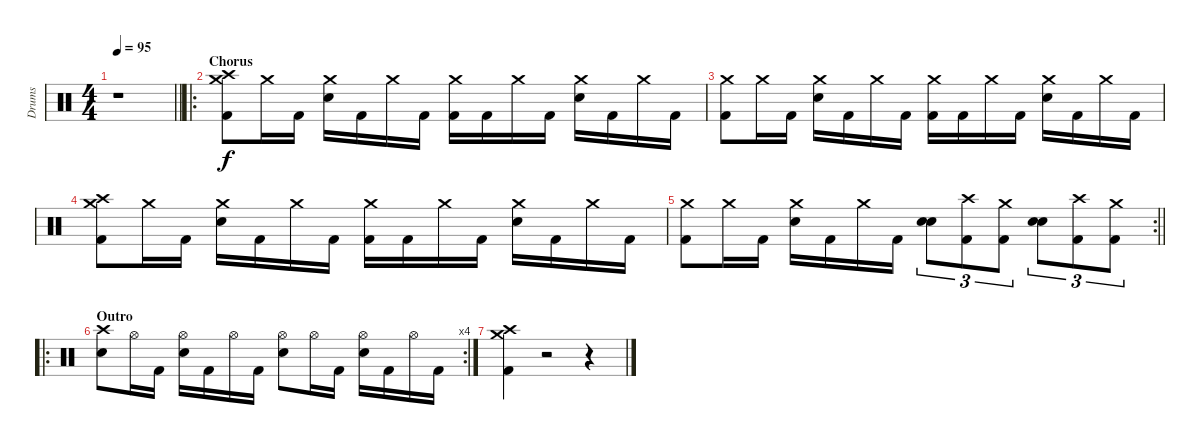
\track ("Drums" "Drums") {instrument percussion}
\staff {score}
\articulation defaults
\ts (4 4)
\tempo 95
\clef neutral
\barLineRight lightlight
\ks c
r.1{dy f} |
\ro
\section ("" "Chorus")
("Crash high (hit)" "Crash medium (hit)" "Kick (hit) 2").8 "Crash medium (hit)".16 "Kick (hit) 2".16 ("Crash medium (hit)" "Electric Snare (hit)").16 "Kick (hit) 2".16 "Crash medium (hit)".16 "Kick (hit) 2".16 ("Crash medium (hit)" "Kick (hit) 2").16 "Kick (hit) 2".16 "Crash medium (hit)".16 "Kick (hit) 2".16 ("Electric Snare (hit)" "Crash medium (hit)").16 "Kick (hit) 2".16 "Crash medium (hit)".16 "Kick (hit) 2".16 |
("Crash medium (hit)" "Kick (hit) 2").8 "Crash medium (hit)".16 "Kick (hit) 2".16 ("Crash medium (hit)" "Electric Snare (hit)").16 "Kick (hit) 2".16 "Crash medium (hit)".16 "Kick (hit) 2".16 ("Crash medium (hit)" "Kick (hit) 2").16 "Kick (hit) 2".16 "Crash medium (hit)".16 "Kick (hit) 2".16 ("Electric Snare (hit)" "Crash medium (hit)").16 "Kick (hit) 2".16 "Crash medium (hit)".16 "Kick (hit) 2".16 |
("Crash high (hit)" "Crash medium (hit)" "Kick (hit) 2").8 "Crash medium (hit)".16 "Kick (hit) 2".16 ("Crash medium (hit)" "Electric Snare (hit)").16 "Kick (hit) 2".16 "Crash medium (hit)".16 "Kick (hit) 2".16 ("Crash medium (hit)" "Kick (hit) 2").16 "Kick (hit) 2".16 "Crash medium (hit)".16 "Kick (hit) 2".16 ("Electric Snare (hit)" "Crash medium (hit)").16 "Kick (hit) 2".16 "Crash medium (hit)".16 "Kick (hit) 2".16 |
\rc 2
\barLineRight lightlight
("Crash medium (hit)" "Kick (hit) 2").8 "Crash medium (hit)".16 "Kick (hit) 2".16 ("Crash medium (hit)" "Electric Snare (hit)").16 "Kick (hit) 2".16 "Crash medium (hit)".16 "Kick (hit) 2".16 ("Snare (hit) 2" "Electric Snare (hit)").8{tu (3 2)} ("Crash high (hit)" "Kick (hit) 2").8{tu (3 2)} ("Crash medium (hit)" "Kick (hit) 2").8{tu (3 2)} ("Snare (hit) 2" "Electric Snare (hit)").8{tu (3 2)} ("Crash high (hit)" "Kick (hit) 2").8{tu (3 2)} ("Crash medium (hit)" "Kick (hit) 2").8{tu (3 2)} |
\ro
\rc 4
\section ("" "Outro")
("Electric Snare (hit)" "Crash high (hit)").8 "Hi-Hat (open)".16 "Kick (hit) 2".16 ("Hi-Hat (open)" "Electric Snare (hit)").16 "Kick (hit) 2".16 "Hi-Hat (open)".16 "Kick (hit) 2".16 ("Electric Snare (hit)" "Hi-Hat (open)").8 "Hi-Hat (open)".16 "Kick (hit) 2".16 ("Hi-Hat (open)" "Electric Snare (hit)").16 "Kick (hit) 2".16 "Hi-Hat (open)".16 "Kick (hit) 2".16 |
("Crash high (hit)" "Crash medium (hit)" "Kick (hit) 2").4 r.2 r.4
